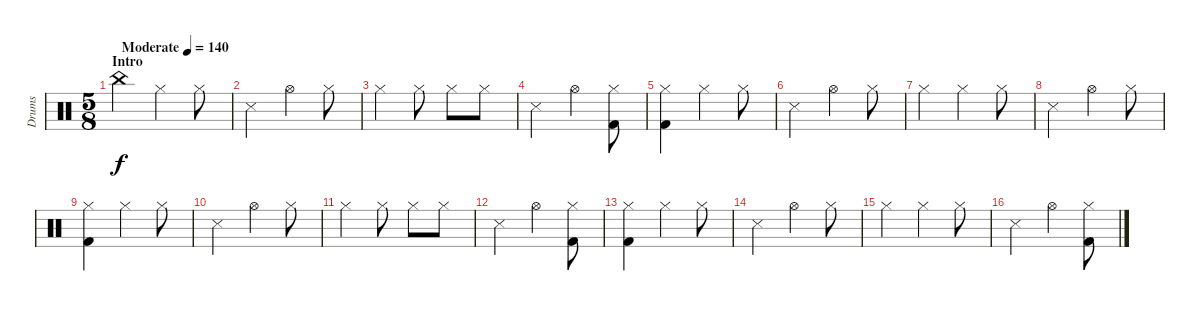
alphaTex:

\track ("Drums" "Drums") {instrument percussion}
\staff {score}
\articulation defaults
\ts (5 8)
\section ("" "Intro")
\tempo (140 "Moderate")
\clef neutral
\ks c "China (hit)".4{dy f} "Hi-Hat (closed)".4 "Hi-Hat (closed)".8
|
"Snare (side stick) 3".4 "Hi-Hat (open)".4 "Hi-Hat (closed)".8 |
"Hi-Hat (closed)".4 "Hi-Hat (closed)".8 "Hi-Hat (closed)".8 "Hi-Hat (closed)".8 |
"Snare (side stick) 3".4 "Hi-Hat (open)".4 ("Hi-Hat (closed)" "Kick (hit) 2").8 |
("Hi-Hat (closed)" "Kick (hit) 2").4 "Hi-Hat (closed)".4 "Hi-Hat (closed)".8 |
"Snare (side stick) 3".4 "Hi-Hat (open)".4 "Hi-Hat (closed)".8 |
"Hi-Hat (closed)".4 "Hi-Hat (closed)".4 "Hi-Hat (closed)".8 |
"Snare (side stick) 3".4 "Hi-Hat (open)".4 "Hi-Hat (closed)".8 |
("Hi-Hat (closed)" "Kick (hit) 2").4 "Hi-Hat (closed)".4 "Hi-Hat (closed)".8 |
"Snare (side stick) 3".4 "Hi-Hat (open)".4 "Hi-Hat (closed)".8 |
"Hi-Hat (closed)".4 "Hi-Hat (closed)".8 "Hi-Hat (closed)".8 "Hi-Hat (closed)".8 |
"Snare (side stick) 3".4 "Hi-Hat (open)".4 ("Hi-Hat (closed)" "Kick (hit) 2").8 |
("Hi-Hat (closed)" "Kick (hit) 2").4 "Hi-Hat (closed)".4 "Hi-Hat (closed)".8 |
"Snare (side stick) 3".4 "Hi-Hat (open)".4 "Hi-Hat (closed)".8 |
"Hi-Hat (closed)".4 "Hi-Hat (closed)".4 "Hi-Hat (closed)".8 |
"Snare (side stick) 3".4 "Hi-Hat (open)".4 ("Hi-Hat (closed)" "Kick (hit) 2").8
